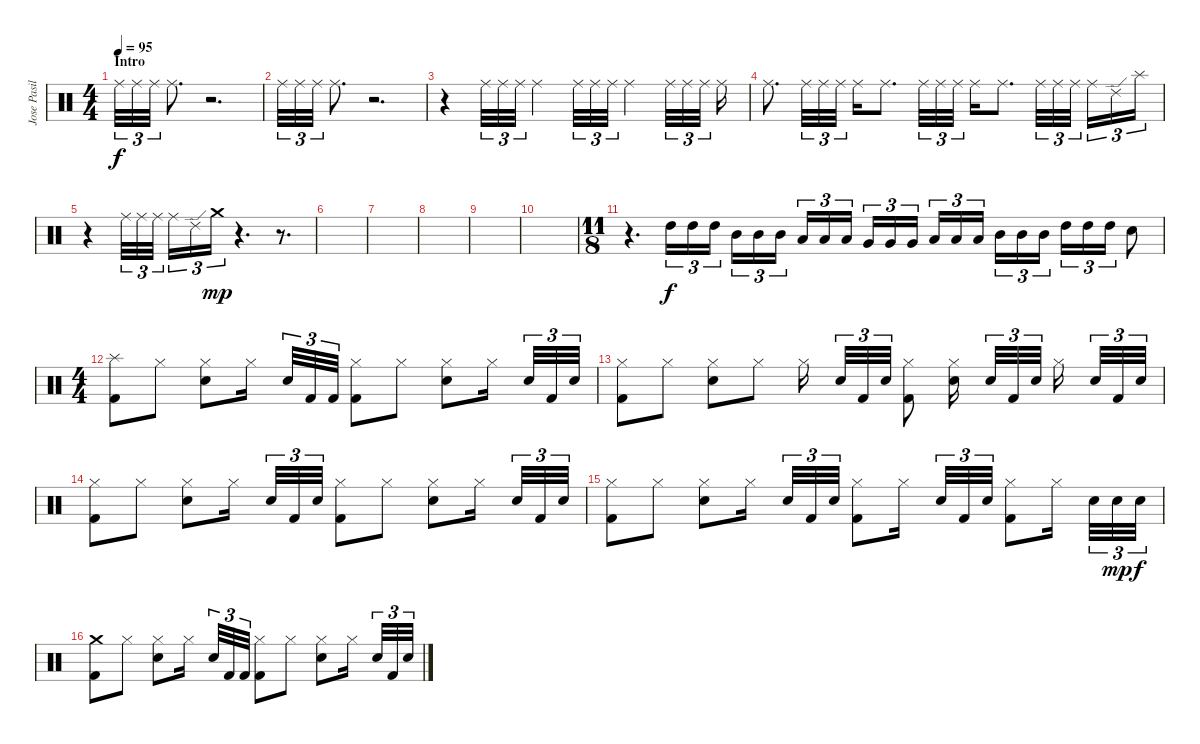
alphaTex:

\track ("Jose Pasillas II - Drums" "Jose Pasil") {instrument percussion}
\staff {score}
\articulation defaults
\ts (4 4)
\section ("" "Intro")
\tempo 95
\clef neutral
\ks aminor "Ride (middle)".32{tu (3 2) dy f} "Ride (middle)".32{tu (3 2)} "Ride (middle)".32{tu (3 2)} "Ride (middle)".8{d}
r.2{d} |
"Ride (middle)".32{tu (3 2)} "Ride (middle)".32{tu (3 2)} "Ride (middle)".32{tu (3 2)} "Ride (middle)".8{d} r.2{d} |
r.4 "Ride (middle)".32{tu (3 2)} "Ride (middle)".32{tu (3 2)} "Ride (middle)".32{tu (3 2)} "Ride (middle)".4 "Ride (middle)".32{tu (3 2)} "Ride (middle)".32{tu (3 2)} "Ride (middle)".32{tu (3 2)} "Ride (middle)".4 "Ride (middle)".32{tu (3 2)} "Ride (middle)".32{tu (3 2)} "Ride (middle)".32{tu (3 2)} "Ride (middle)".16 |
"Ride (middle)".8{d} "Ride (middle)".32{tu (3 2)} "Ride (middle)".32{tu (3 2)} "Ride (middle)".32{tu (3 2)} "Ride (middle)".16 "Ride (middle)".8{d} "Ride (middle)".32{tu (3 2)} "Ride (middle)".32{tu (3 2)} "Ride (middle)".32{tu (3 2)} "Ride (middle)".16 "Ride (middle)".8{d} "Ride (middle)".32{tu (3 2)} "Ride (middle)".32{tu (3 2)} "Ride (middle)".32{tu (3 2)} "Ride (middle)".16{tu (3 2)} "Ride (edge) 2".16{tu (3 2)} "Splash (hit)".16{tu (3 2)} |
r.4 "Ride (middle)".32{tu (3 2)} "Ride (middle)".32{tu (3 2)} "Ride (middle)".32{tu (3 2)} "Ride (middle)".16{tu (3 2)} "Ride (edge) 2".16{tu (3 2)} "Crash medium (hit)".16{tu (3 2) dy mp} r.4{d} r.8{d} |
|
|
|
|
|
\ts (11 8)
r.4{d balance 0} "High Tom (hit)".16{tu (3 2) dy f} "High Tom (hit)".16{tu (3 2)} "High Tom (hit)".16{tu (3 2)} "Mid Tom (hit)".16{tu (3 2)} "Mid Tom (hit)".16{tu (3 2)} "Mid Tom (hit)".16{tu (3 2)} "Low Tom (hit)".16{tu (3 2)} "Low Tom (hit)".16{tu (3 2)} "Low Tom (hit)".16{tu (3 2)} "Very Low Tom (hit)".16{tu (3 2)} "Very Low Tom (hit)".16{tu (3 2)} "Very Low Tom (hit)".16{tu (3 2)} "Low Tom (hit)".16{tu (3 2) balance 16} "Low Tom (hit)".16{tu (3 2)} "Low Tom (hit)".16{tu (3 2)} "Mid Tom (hit)".16{tu (3 2)} "Mid Tom (hit)".16{tu (3 2)} "Mid Tom (hit)".16{tu (3 2)} "High Tom (hit)".16{tu (3 2)} "High Tom (hit)".16{tu (3 2)} "High Tom (hit)".16{tu (3 2)} "Electric Snare (hit)".8 |
\ts (4 4)
("Splash (hit)" "Kick (hit) 2").8{balance 8} "Hi-Hat (closed)".8 ("Hi-Hat (closed)" "Electric Snare (hit)").8 "Hi-Hat (closed)".16 "Snare (hit)"{x}.32{tu (3 2)} "Kick (hit) 2".32{tu (3 2)} "Kick (hit) 2"{x}.32{tu (3 2)} ("Hi-Hat (closed)" "Kick (hit) 2").8 "Hi-Hat (closed)".8 ("Hi-Hat (closed)" "Electric Snare (hit)").8 "Hi-Hat (closed)".16 "Snare (hit)"{x}.32{tu (3 2)} "Kick (hit) 2".32{tu (3 2)} "Snare (hit)"{x}.32{tu (3 2)} |
("Hi-Hat (closed)" "Kick (hit) 2").8 "Hi-Hat (closed)".8 ("Hi-Hat (closed)" "Electric Snare (hit)").8 "Hi-Hat (closed)".8 "Hi-Hat (closed)".16 "Snare (hit)"{x}.32{tu (3 2)} "Kick (hit) 2".32{tu (3 2)} "Snare (hit)"{x}.32{tu (3 2)} ("Hi-Hat (closed)" "Kick (hit) 2").8 ("Hi-Hat (closed)" "Electric Snare (hit)").16 "Snare (hit)"{x}.32{tu (3 2)} "Kick (hit) 2".32{tu (3 2)} "Snare (hit)"{x}.32{tu (3 2)} "Hi-Hat (closed)".16 "Snare (hit)"{x}.32{tu (3 2)} "Kick (hit) 2".32{tu (3 2)} "Snare (hit)"{x}.32{tu (3 2)} |
("Hi-Hat (closed)" "Kick (hit) 2").8 "Hi-Hat (closed)".8 ("Hi-Hat (closed)" "Electric Snare (hit)").8 "Hi-Hat (closed)".16 "Snare (hit)"{x}.32{tu (3 2)} "Kick (hit) 2".32{tu (3 2)} "Snare (hit)"{x}.32{tu (3 2)} ("Hi-Hat (closed)" "Kick (hit) 2").8 "Hi-Hat (closed)".8 ("Hi-Hat (closed)" "Electric Snare (hit)").8 "Hi-Hat (closed)".16 "Snare (hit)"{x}.32{tu (3 2)} "Kick (hit) 2".32{tu (3 2)} "Snare (hit)"{x}.32{tu (3 2)} |
("Hi-Hat (closed)" "Kick (hit) 2").8 "Hi-Hat (closed)".8 ("Hi-Hat (closed)" "Electric Snare (hit)").8 "Hi-Hat (closed)".16 "Snare (hit)"{x}.32{tu (3 2)} "Kick (hit) 2".32{tu (3 2)} "Snare (hit)"{x}.32{tu (3 2)} ("Hi-Hat (closed)" "Kick (hit) 2").8 "Hi-Hat (closed)".16 "Snare (hit)"{x}.32{tu (3 2)} "Kick (hit) 2".32{tu (3 2)} "Snare (hit)"{x}.32{tu (3 2)} ("Hi-Hat (closed)" "Kick (hit) 2").8 "Hi-Hat (closed)".16 "Snare (hit)"{x}.32{tu (3 2)} "Electric Snare (hit)".32{tu (3 2) dy mp} "Snare (hit)"{x}.32{tu (3 2) dy f} |
("Crash medium (hit)" "Kick (hit) 2").8 "Hi-Hat (closed)".8 ("Hi-Hat (closed)" "Electric Snare (hit)").8 "Hi-Hat (closed)".16 "Snare (hit)"{x}.32{tu (3 2)} "Kick (hit) 2".32{tu (3 2)} "Kick (hit) 2"{x}.32{tu (3 2)} ("Hi-Hat (closed)" "Kick (hit) 2").8 "Hi-Hat (closed)".8 ("Hi-Hat (closed)" "Electric Snare (hit)").8 "Hi-Hat (closed)".16 "Snare (hit)"{x}.32{tu (3 2)} "Kick (hit) 2".32{tu (3 2)} "Snare (hit)"{x}.32{tu (3 2)}
